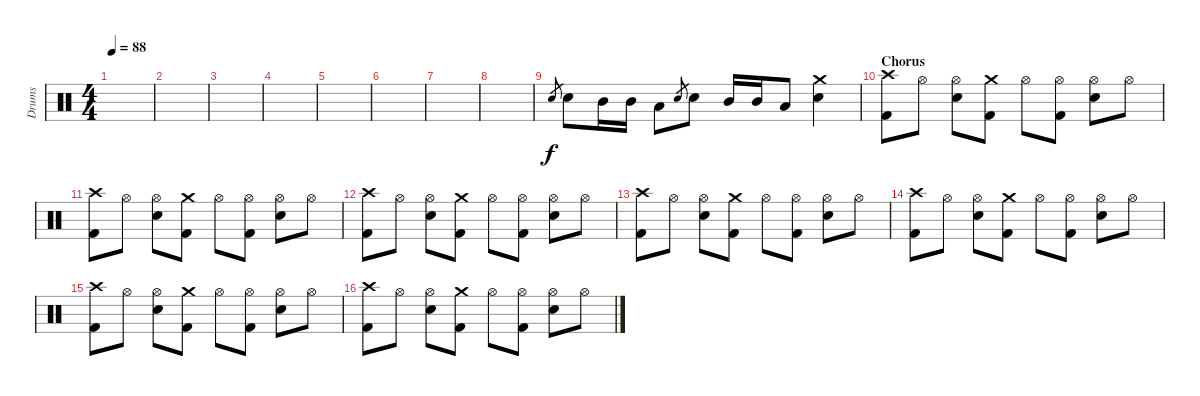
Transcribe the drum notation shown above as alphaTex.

\track ("Drums" "Drums") {instrument percussion}
\staff {score}
\articulation defaults
\ts (4 4)
\tempo 88
\clef neutral
\ks c
|
|
|
|
|
|
|
|
"Electric Snare (hit)".8{gr dy f} "Electric Snare (hit)".8 "Mid Tom (hit)".16 "Mid Tom (hit)".16 "Low Tom (hit)".8 "Electric Snare (hit)".8{gr} "Electric Snare (hit)".8 "Mid Tom (hit)".16 "Mid Tom (hit)".16 "Low Tom (hit)".8 ("Crash medium (hit)" "Electric Snare (hit)").4 |
\section ("" "Chorus")
("Crash high (hit)" "Kick (hit) 2").8 "Hi-Hat (open)".8 ("Hi-Hat (open)" "Electric Snare (hit)").8 ("Crash medium (hit)" "Kick (hit) 2").8 "Hi-Hat (open)".8 ("Hi-Hat (open)" "Kick (hit) 2").8 ("Hi-Hat (open)" "Electric Snare (hit)").8 "Hi-Hat (open)".8 |
("Crash high (hit)" "Kick (hit) 2").8 "Hi-Hat (open)".8 ("Hi-Hat (open)" "Electric Snare (hit)").8 ("Crash medium (hit)" "Kick (hit) 2").8 "Hi-Hat (open)".8 ("Hi-Hat (open)" "Kick (hit) 2").8 ("Hi-Hat (open)" "Electric Snare (hit)").8 "Hi-Hat (open)".8 |
("Crash high (hit)" "Kick (hit) 2").8 "Hi-Hat (open)".8 ("Hi-Hat (open)" "Electric Snare (hit)").8 ("Crash medium (hit)" "Kick (hit) 2").8 "Hi-Hat (open)".8 ("Hi-Hat (open)" "Kick (hit) 2").8 ("Hi-Hat (open)" "Electric Snare (hit)").8 "Hi-Hat (open)".8 |
("Crash high (hit)" "Kick (hit) 2").8 "Hi-Hat (open)".8 ("Hi-Hat (open)" "Electric Snare (hit)").8 ("Crash medium (hit)" "Kick (hit) 2").8 "Hi-Hat (open)".8 ("Hi-Hat (open)" "Kick (hit) 2").8 ("Hi-Hat (open)" "Electric Snare (hit)").8 "Hi-Hat (open)".8 |
("Crash high (hit)" "Kick (hit) 2").8 "Hi-Hat (open)".8 ("Hi-Hat (open)" "Electric Snare (hit)").8 ("Crash medium (hit)" "Kick (hit) 2").8 "Hi-Hat (open)".8 ("Hi-Hat (open)" "Kick (hit) 2").8 ("Hi-Hat (open)" "Electric Snare (hit)").8 "Hi-Hat (open)".8 |
("Crash high (hit)" "Kick (hit) 2").8 "Hi-Hat (open)".8 ("Hi-Hat (open)" "Electric Snare (hit)").8 ("Crash medium (hit)" "Kick (hit) 2").8 "Hi-Hat (open)".8 ("Hi-Hat (open)" "Kick (hit) 2").8 ("Hi-Hat (open)" "Electric Snare (hit)").8 "Hi-Hat (open)".8 |
("Crash high (hit)" "Kick (hit) 2").8 "Hi-Hat (open)".8 ("Hi-Hat (open)" "Electric Snare (hit)").8 ("Crash medium (hit)" "Kick (hit) 2").8 "Hi-Hat (open)".8 ("Hi-Hat (open)" "Kick (hit) 2").8 ("Hi-Hat (open)" "Electric Snare (hit)").8 "Hi-Hat (open)".8
